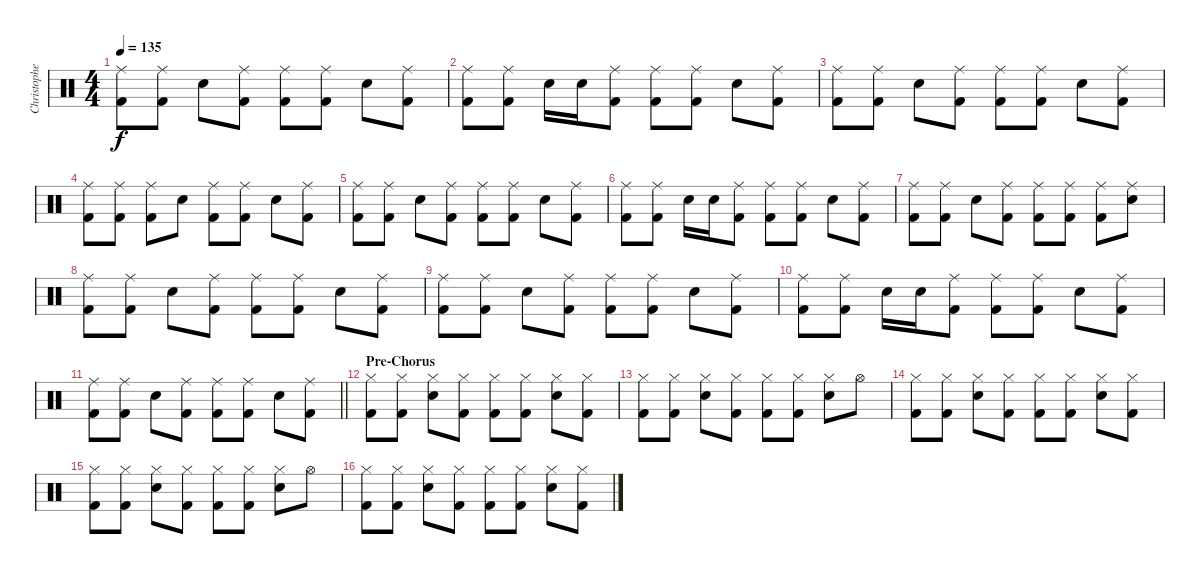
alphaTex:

\track ("Christopher - Drums" "Christophe") {instrument percussion}
\staff {score}
\articulation defaults
\ts (4 4)
\tempo 135
\clef neutral
\ks c
("Ride (middle)" "Kick (hit) 2").8{dy f} ("Ride (middle)" "Kick (hit) 2").8 "Snare (hit) 2".8 ("Ride (middle)" "Kick (hit) 2").8 ("Ride (middle)" "Kick (hit) 2").8 ("Ride (middle)" "Kick (hit) 2").8 "Snare (hit) 2".8 ("Ride (middle)" "Kick (hit) 2").8 |
("Ride (middle)" "Kick (hit) 2").8 ("Ride (middle)" "Kick (hit) 2").8 "Snare (hit) 2".16 "Snare (hit) 2".16 ("Ride (middle)" "Kick (hit) 2").8 ("Ride (middle)" "Kick (hit) 2").8 ("Ride (middle)" "Kick (hit) 2").8 "Snare (hit) 2".8 ("Ride (middle)" "Kick (hit) 2").8 |
("Ride (middle)" "Kick (hit) 2").8 ("Ride (middle)" "Kick (hit) 2").8 "Snare (hit) 2".8 ("Ride (middle)" "Kick (hit) 2").8 ("Ride (middle)" "Kick (hit) 2").8 ("Ride (middle)" "Kick (hit) 2").8 "Snare (hit) 2".8 ("Ride (middle)" "Kick (hit) 2").8 |
("Ride (middle)" "Kick (hit) 2").8 ("Ride (middle)" "Kick (hit) 2").8 ("Ride (middle)" "Kick (hit) 2").8 "Snare (hit) 2".8 ("Ride (middle)" "Kick (hit) 2").8 ("Ride (middle)" "Kick (hit) 2").8 "Snare (hit) 2".8 ("Ride (middle)" "Kick (hit) 2").8 |
("Ride (middle)" "Kick (hit) 2").8 ("Ride (middle)" "Kick (hit) 2").8 "Snare (hit) 2".8 ("Ride (middle)" "Kick (hit) 2").8 ("Ride (middle)" "Kick (hit) 2").8 ("Ride (middle)" "Kick (hit) 2").8 "Snare (hit) 2".8 ("Ride (middle)" "Kick (hit) 2").8 |
("Ride (middle)" "Kick (hit) 2").8 ("Ride (middle)" "Kick (hit) 2").8 "Snare (hit) 2".16 "Snare (hit) 2".16 ("Ride (middle)" "Kick (hit) 2").8 ("Ride (middle)" "Kick (hit) 2").8 ("Ride (middle)" "Kick (hit) 2").8 "Snare (hit) 2".8 ("Ride (middle)" "Kick (hit) 2").8 |
("Ride (middle)" "Kick (hit) 2").8 ("Ride (middle)" "Kick (hit) 2").8 "Snare (hit) 2".8 ("Ride (middle)" "Kick (hit) 2").8 ("Ride (middle)" "Kick (hit) 2").8 ("Ride (middle)" "Kick (hit) 2").8 ("Ride (middle)" "Kick (hit) 2").8 ("Ride (middle)" "Snare (hit) 2").8 |
("Ride (middle)" "Kick (hit) 2").8 ("Ride (middle)" "Kick (hit) 2").8 "Snare (hit) 2".8 ("Ride (middle)" "Kick (hit) 2").8 ("Ride (middle)" "Kick (hit) 2").8 ("Ride (middle)" "Kick (hit) 2").8 "Snare (hit) 2".8 ("Ride (middle)" "Kick (hit) 2").8 |
("Ride (middle)" "Kick (hit) 2").8 ("Ride (middle)" "Kick (hit) 2").8 "Snare (hit) 2".8 ("Ride (middle)" "Kick (hit) 2").8 ("Ride (middle)" "Kick (hit) 2").8 ("Ride (middle)" "Kick (hit) 2").8 "Snare (hit) 2".8 ("Ride (middle)" "Kick (hit) 2").8 |
("Ride (middle)" "Kick (hit) 2").8 ("Ride (middle)" "Kick (hit) 2").8 "Snare (hit) 2".16 "Snare (hit) 2".16 ("Ride (middle)" "Kick (hit) 2").8 ("Ride (middle)" "Kick (hit) 2").8 ("Ride (middle)" "Kick (hit) 2").8 "Snare (hit) 2".8 ("Ride (middle)" "Kick (hit) 2").8 |
\barLineRight lightlight
("Ride (middle)" "Kick (hit) 2").8 ("Ride (middle)" "Kick (hit) 2").8 "Snare (hit) 2".8 ("Ride (middle)" "Kick (hit) 2").8 ("Ride (middle)" "Kick (hit) 2").8 ("Ride (middle)" "Kick (hit) 2").8 "Snare (hit) 2".8 ("Ride (middle)" "Kick (hit) 2").8 |
\section ("" "Pre-Chorus")
("Hi-Hat (closed)" "Kick (hit) 2").8 ("Hi-Hat (closed)" "Kick (hit) 2").8 ("Hi-Hat (closed)" "Snare (hit) 2").8 ("Hi-Hat (closed)" "Kick (hit) 2").8 ("Hi-Hat (closed)" "Kick (hit) 2").8 ("Hi-Hat (closed)" "Kick (hit) 2").8 ("Hi-Hat (closed)" "Snare (hit) 2").8 ("Hi-Hat (closed)" "Kick (hit) 2").8 |
("Hi-Hat (closed)" "Kick (hit) 2").8 ("Hi-Hat (closed)" "Kick (hit) 2").8 ("Hi-Hat (closed)" "Snare (hit) 2").8 ("Hi-Hat (closed)" "Kick (hit) 2").8 ("Hi-Hat (closed)" "Kick (hit) 2").8 ("Hi-Hat (closed)" "Kick (hit) 2").8 ("Hi-Hat (closed)" "Snare (hit) 2").8 "Hi-Hat (open)".8 |
("Hi-Hat (closed)" "Kick (hit) 2").8 ("Hi-Hat (closed)" "Kick (hit) 2").8 ("Hi-Hat (closed)" "Snare (hit) 2").8 ("Hi-Hat (closed)" "Kick (hit) 2").8 ("Hi-Hat (closed)" "Kick (hit) 2").8 ("Hi-Hat (closed)" "Kick (hit) 2").8 ("Hi-Hat (closed)" "Snare (hit) 2").8 ("Hi-Hat (closed)" "Kick (hit) 2").8 |
("Hi-Hat (closed)" "Kick (hit) 2").8 ("Hi-Hat (closed)" "Kick (hit) 2").8 ("Hi-Hat (closed)" "Snare (hit) 2").8 ("Hi-Hat (closed)" "Kick (hit) 2").8 ("Hi-Hat (closed)" "Kick (hit) 2").8 ("Hi-Hat (closed)" "Kick (hit) 2").8 ("Hi-Hat (closed)" "Snare (hit) 2").8 "Hi-Hat (open)".8 |
("Hi-Hat (closed)" "Kick (hit) 2").8 ("Hi-Hat (closed)" "Kick (hit) 2").8 ("Hi-Hat (closed)" "Snare (hit) 2").8 ("Hi-Hat (closed)" "Kick (hit) 2").8 ("Hi-Hat (closed)" "Kick (hit) 2").8 ("Hi-Hat (closed)" "Kick (hit) 2").8 ("Hi-Hat (closed)" "Snare (hit) 2").8 ("Hi-Hat (closed)" "Kick (hit) 2").8
